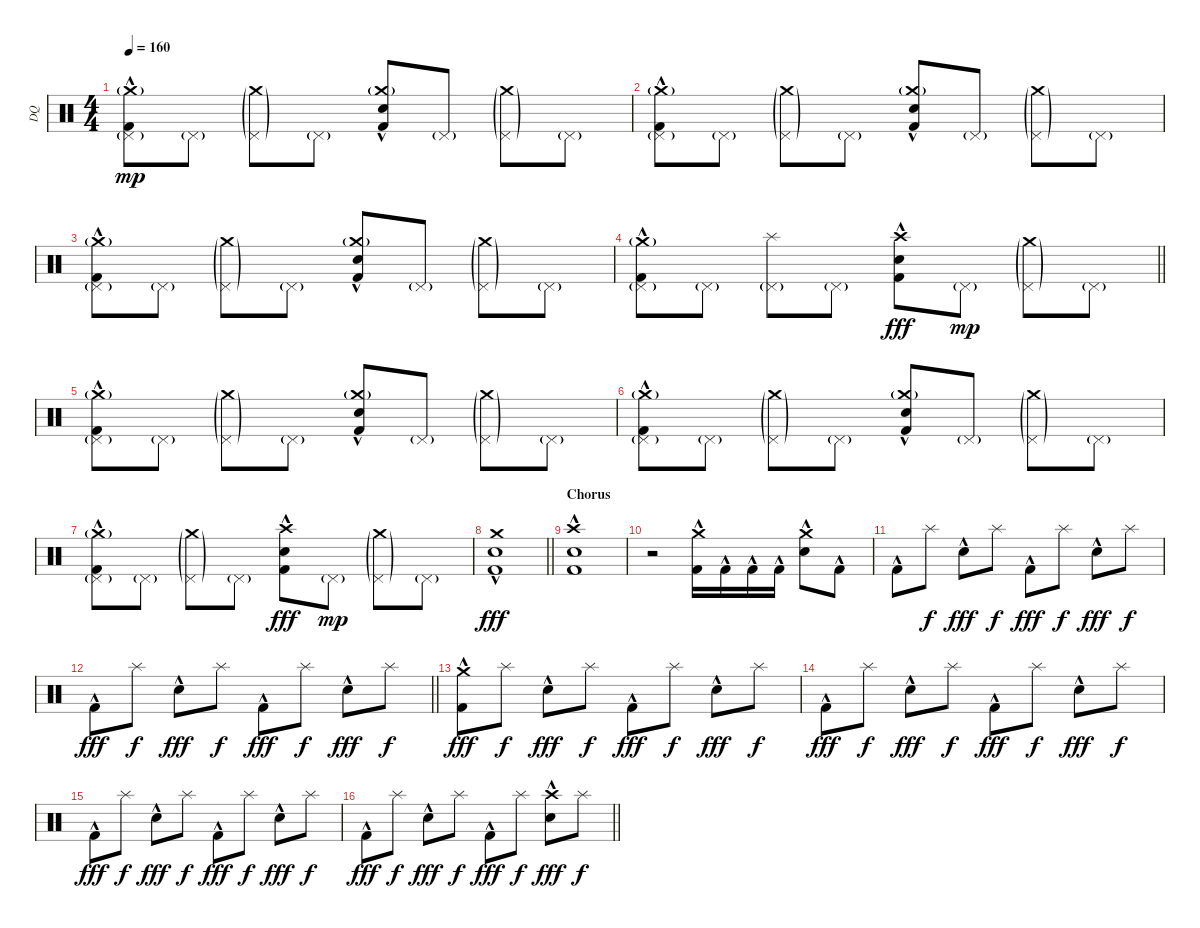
\track ("DQ" "DQ") {instrument percussion}
\staff {score}
\articulation defaults
\ts (4 4)
\section ("" "")
\tempo 160
\clef neutral
\ks c
("Kick (hit) 2"{hac} "Pedal Hi-Hat (hit)"{g} "Crash medium (hit)"{g}).8{dy mp} "Pedal Hi-Hat (hit)"{g}.8 ("Pedal Hi-Hat (hit)"{g} "Crash medium (hit)"{g}).8 "Pedal Hi-Hat (hit)"{g}.8 ("Kick (hit) 2" "Snare (hit) 2"{hac} "Crash medium (hit)"{g}).8 "Pedal Hi-Hat (hit)"{g}.8 ("Pedal Hi-Hat (hit)"{g} "Crash medium (hit)"{g}).8 "Pedal Hi-Hat (hit)"{g}.8 |
("Kick (hit) 2"{hac} "Pedal Hi-Hat (hit)"{g} "Crash medium (hit)"{g}).8 "Pedal Hi-Hat (hit)"{g}.8 ("Pedal Hi-Hat (hit)"{g} "Crash medium (hit)"{g}).8 "Pedal Hi-Hat (hit)"{g}.8 ("Kick (hit) 2" "Snare (hit) 2"{hac} "Crash medium (hit)"{g}).8 "Pedal Hi-Hat (hit)"{g}.8 ("Pedal Hi-Hat (hit)"{g} "Crash medium (hit)"{g}).8 "Pedal Hi-Hat (hit)"{g}.8 |
("Kick (hit) 2"{hac} "Pedal Hi-Hat (hit)"{g} "Crash medium (hit)"{g}).8 "Pedal Hi-Hat (hit)"{g}.8 ("Pedal Hi-Hat (hit)"{g} "Crash medium (hit)"{g}).8 "Pedal Hi-Hat (hit)"{g}.8 ("Kick (hit) 2" "Snare (hit) 2"{hac} "Crash medium (hit)"{g}).8 "Pedal Hi-Hat (hit)"{g}.8 ("Pedal Hi-Hat (hit)"{g} "Crash medium (hit)"{g}).8 "Pedal Hi-Hat (hit)"{g}.8 |
\barLineRight lightlight
("Kick (hit) 2"{hac} "Pedal Hi-Hat (hit)"{g} "Crash medium (hit)"{g}).8 "Pedal Hi-Hat (hit)"{g}.8 ("Pedal Hi-Hat (hit)"{g} "Splash (hit)").8 "Pedal Hi-Hat (hit)"{g}.8 ("Kick (hit) 2"{hac} "Snare (hit) 2"{hac} "Crash high (hit)").8{dy fff} "Pedal Hi-Hat (hit)"{g}.8{dy mp} ("Pedal Hi-Hat (hit)"{g} "Crash medium (hit)"{g}).8 "Pedal Hi-Hat (hit)"{g}.8 |
\section ("" "")
("Kick (hit) 2"{hac} "Pedal Hi-Hat (hit)"{g} "Crash medium (hit)"{g}).8 "Pedal Hi-Hat (hit)"{g}.8 ("Pedal Hi-Hat (hit)"{g} "Crash medium (hit)"{g}).8 "Pedal Hi-Hat (hit)"{g}.8 ("Kick (hit) 2" "Snare (hit) 2"{hac} "Crash medium (hit)"{g}).8 "Pedal Hi-Hat (hit)"{g}.8 ("Pedal Hi-Hat (hit)"{g} "Crash medium (hit)"{g}).8 "Pedal Hi-Hat (hit)"{g}.8 |
("Kick (hit) 2"{hac} "Pedal Hi-Hat (hit)"{g} "Crash medium (hit)"{g}).8 "Pedal Hi-Hat (hit)"{g}.8 ("Pedal Hi-Hat (hit)"{g} "Crash medium (hit)"{g}).8 "Pedal Hi-Hat (hit)"{g}.8 ("Kick (hit) 2" "Snare (hit) 2"{hac} "Crash medium (hit)"{g}).8 "Pedal Hi-Hat (hit)"{g}.8 ("Pedal Hi-Hat (hit)"{g} "Crash medium (hit)"{g}).8 "Pedal Hi-Hat (hit)"{g}.8 |
("Kick (hit) 2"{hac} "Pedal Hi-Hat (hit)"{g} "Crash medium (hit)"{g}).8 "Pedal Hi-Hat (hit)"{g}.8 ("Pedal Hi-Hat (hit)"{g} "Crash medium (hit)"{g}).8 "Pedal Hi-Hat (hit)"{g}.8 ("Kick (hit) 2" "Snare (hit) 2"{hac} "Crash high (hit)").8{dy fff} "Pedal Hi-Hat (hit)"{g}.8{dy mp} ("Pedal Hi-Hat (hit)"{g} "Crash medium (hit)"{g}).8 "Pedal Hi-Hat (hit)"{g}.8 |
\barLineRight lightlight
("Kick (hit) 2"{hac} "Snare (hit) 2"{hac} "Crash medium (hit)").1{dy fff} |
\section ("" "Chorus")
("Kick (hit) 2"{hac} "Snare (hit) 2"{hac} "Crash high (hit)").1 |
r.2 ("Kick (hit) 2"{hac} "Crash medium (hit)").16 "Kick (hit) 2"{hac}.16 "Kick (hit) 2"{hac}.16 "Kick (hit) 2"{hac}.16 ("Snare (hit) 2"{hac} "Crash medium (hit)").8 "Kick (hit) 2"{hac}.8 |
"Kick (hit) 2"{hac}.8 "Splash (hit)".8{dy f} "Snare (hit) 2"{hac}.8{dy fff} "Splash (hit)".8{dy f} "Kick (hit) 2"{hac}.8{dy fff} "Splash (hit)".8{dy f} "Snare (hit) 2"{hac}.8{dy fff} "Splash (hit)".8{dy f} |
\barLineRight lightlight "Kick (hit) 2"{hac}.8{dy fff} "Splash (hit)".8{dy f} "Snare (hit) 2"{hac}.8{dy fff} "Splash (hit)".8{dy f} "Kick (hit) 2"{hac}.8{dy fff} "Splash (hit)".8{dy f} "Snare (hit) 2"{hac}.8{dy fff} "Splash (hit)".8{dy f}
|
\section ("" "")
("Kick (hit) 2"{hac} "Crash medium (hit)").8{dy fff} "Splash (hit)".8{dy f} "Snare (hit) 2"{hac}.8{dy fff} "Splash (hit)".8{dy f} "Kick (hit) 2"{hac}.8{dy fff} "Splash (hit)".8{dy f} "Snare (hit) 2"{hac}.8{dy fff} "Splash (hit)".8{dy f} |
"Kick (hit) 2"{hac}.8{dy fff} "Splash (hit)".8{dy f} "Snare (hit) 2"{hac}.8{dy fff} "Splash (hit)".8{dy f} "Kick (hit) 2"{hac}.8{dy fff} "Splash (hit)".8{dy f} "Snare (hit) 2"{hac}.8{dy fff} "Splash (hit)".8{dy f} |
"Kick (hit) 2"{hac}.8{dy fff} "Splash (hit)".8{dy f} "Snare (hit) 2"{hac}.8{dy fff} "Splash (hit)".8{dy f} "Kick (hit) 2"{hac}.8{dy fff} "Splash (hit)".8{dy f} "Snare (hit) 2"{hac}.8{dy fff} "Splash (hit)".8{dy f} |
\barLineRight lightlight "Kick (hit) 2"{hac}.8{dy fff} "Splash (hit)".8{dy f} "Snare (hit) 2"{hac}.8{dy fff} "Splash (hit)".8{dy f} "Kick (hit) 2"{hac}.8{dy fff} "Splash (hit)".8{dy f}
("Snare (hit) 2"{hac} "Crash high (hit)").8{dy fff} "Splash (hit)".8{dy f}
